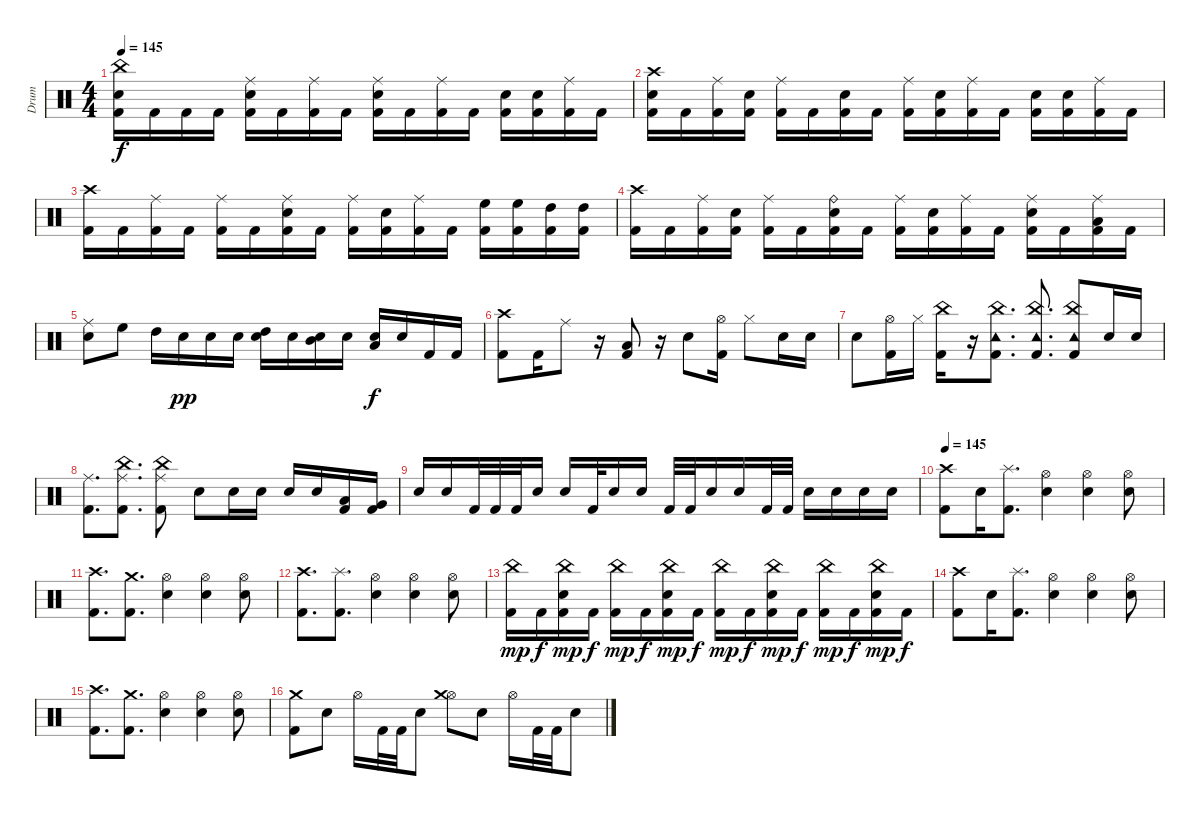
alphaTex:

\track ("Drum" "Drum") {instrument percussion}
\staff {score}
\articulation defaults
\ts (4 4)
\tempo 145
\clef neutral
\ks c
("Electric Snare (hit)" "Kick (hit) 2" "China (hit)").16{dy f} "Kick (hit) 2".16 "Kick (hit) 2".16 "Kick (hit) 2".16 ("Electric Snare (hit)" "Kick (hit) 2" "Ride (middle)").16 "Kick (hit) 2".16 ("Kick (hit) 2" "Ride (middle)").16 "Kick (hit) 2".16 ("Electric Snare (hit)" "Kick (hit) 2" "Ride (middle)").16 "Kick (hit) 2".16 ("Kick (hit) 2" "Ride (middle)").16 "Kick (hit) 2".16 ("Kick (hit) 2" "Electric Snare (hit)").16 ("Kick (hit) 2" "Electric Snare (hit)").16 ("Kick (hit) 2" "Ride (middle)").16 "Kick (hit) 2".16 |
("Kick (hit) 2" "Electric Snare (hit)" "Crash high (hit)").16 "Kick (hit) 2".16 ("Kick (hit) 2" "Ride (middle)").16 ("Kick (hit) 2" "Electric Snare (hit)").16 ("Kick (hit) 2" "Ride (middle)").16 "Kick (hit) 2".16 ("Kick (hit) 2" "Electric Snare (hit)").16 "Kick (hit) 2".16 ("Kick (hit) 2" "Ride (middle)").16 ("Kick (hit) 2" "Electric Snare (hit)").16 ("Kick (hit) 2" "Ride (middle)").16 "Kick (hit) 2".16 ("Kick (hit) 2" "Electric Snare (hit)").16 ("Kick (hit) 2" "Electric Snare (hit)").16 ("Kick (hit) 2" "Ride (middle)").16 "Kick (hit) 2".16 |
("Crash high (hit)" "Kick (hit) 2").16 "Kick (hit) 2".16 ("Kick (hit) 2" "Ride (middle)").16 "Kick (hit) 2".16 ("Kick (hit) 2" "Ride (middle)").16 "Kick (hit) 2".16 ("Kick (hit) 2" "Electric Snare (hit)" "Ride (middle)").16 "Kick (hit) 2".16 ("Kick (hit) 2" "Ride (middle)").16 ("Kick (hit) 2" "Electric Snare (hit)").16 ("Kick (hit) 2" "Ride (middle)").16 "Kick (hit) 2".16 ("Kick (hit) 2" "High Floor Tom (hit)").16 ("Kick (hit) 2" "High Floor Tom (hit)").16 ("Kick (hit) 2" "High Tom (hit)").16 ("Kick (hit) 2" "High Tom (hit)").16 |
("Kick (hit) 2" "Crash high (hit)").16 "Kick (hit) 2".16 ("Kick (hit) 2" "Ride (middle)").16 ("Kick (hit) 2" "Electric Snare (hit)").16 ("Kick (hit) 2" "Ride (middle)").16 "Kick (hit) 2".16 ("Kick (hit) 2" "Ride (bell)" "Electric Snare (hit)").16 "Kick (hit) 2".16 ("Kick (hit) 2" "Ride (middle)").16 ("Kick (hit) 2" "Electric Snare (hit)").16 ("Kick (hit) 2" "Ride (middle)").16 "Kick (hit) 2".16 ("Kick (hit) 2" "Electric Snare (hit)" "Ride (middle)").16 "Kick (hit) 2".16 ("Kick (hit) 2" "Low Floor Tom (hit)" "Ride (middle)").16 "Kick (hit) 2".16 |
("Electric Snare (hit)" "Ride (middle)").8 "High Floor Tom (hit)".8 "High Tom (hit)".16 "Electric Snare (hit)".16{dy pp} "Electric Snare (hit)".16 "Electric Snare (hit)".16 ("High Tom (hit)" "Electric Snare (hit)").16 "Electric Snare (hit)".16 ("Mid Tom (hit)" "Electric Snare (hit)").16 "Electric Snare (hit)".16 ("Electric Snare (hit)" "Low Tom (hit)").16{dy f} "Electric Snare (hit)".16 "Kick (hit) 2".16 "Kick (hit) 2".16 |
("Crash high (hit)" "Kick (hit) 2").8 "Kick (hit) 2".16 "Ride (middle)".8 r.16 ("Low Tom (hit)" "Kick (hit) 2").8 r.16 "Electric Snare (hit)".8 ("Hi-Hat (open)" "Kick (hit) 2").16 "Hi-Hat (closed)".8 "Electric Snare (hit)".16 "Electric Snare (hit)".16 |
"Electric Snare (hit)".8 ("Kick (hit) 2" "Hi-Hat (open)").16 "Hi-Hat (closed)".16 ("Kick (hit) 2" "China (hit)").16 r.16 ("Tambourine (hit)" "Kick (hit) 2" "China (hit)").8{d} ("Tambourine (hit)" "China (hit)" "Kick (hit) 2").8{d} ("Tambourine (hit)" "China (hit)" "Kick (hit) 2").8 "Electric Snare (hit)".16 "Electric Snare (hit)".16 |
("Kick (hit) 2" "Ride (middle)").8{d} ("Ride (middle)" "Kick (hit) 2" "China (hit)").8{d} ("China (hit)" "Ride (middle)" "Kick (hit) 2").8 "Electric Snare (hit)".8 "Electric Snare (hit)".16 "Electric Snare (hit)".16 "Electric Snare (hit)".16 "Electric Snare (hit)".16 ("Kick (hit) 2" "Low Tom (hit)").16 ("Kick (hit) 2" "Very Low Tom (hit)").16 |
"Electric Snare (hit)".16 "Electric Snare (hit)".16 "Kick (hit) 2".32 "Kick (hit) 2".32 "Kick (hit) 2".32 "Electric Snare (hit)".16 "Electric Snare (hit)".16 "Kick (hit) 2".32 "Electric Snare (hit)".16 "Electric Snare (hit)".16 "Kick (hit) 2".32 "Kick (hit) 2".32 "Electric Snare (hit)".16 "Electric Snare (hit)".16 "Kick (hit) 2".32 "Kick (hit) 2".32 "Electric Snare (hit)".16 "Electric Snare (hit)".16 "Electric Snare (hit)".16 "Electric Snare (hit)".16 |
\tempo 145
("Crash high (hit)" "Kick (hit) 2").8 "Electric Snare (hit)".16 ("Splash (hit)" "Kick (hit) 2").8{d} ("Hi-Hat (open)" "Electric Snare (hit)").4 ("Hi-Hat (open)" "Electric Snare (hit)").4 ("Hi-Hat (open)" "Electric Snare (hit)").8 |
("Kick (hit) 2" "Crash high (hit)").8{d} ("Kick (hit) 2" "Crash medium (hit)").8{d} ("Hi-Hat (open)" "Electric Snare (hit)").4 ("Hi-Hat (open)" "Electric Snare (hit)").4 ("Hi-Hat (open)" "Electric Snare (hit)").8 |
("Crash high (hit)" "Kick (hit) 2").8{d} ("Splash (hit)" "Kick (hit) 2").8{d} ("Hi-Hat (open)" "Electric Snare (hit)").4 ("Hi-Hat (open)" "Electric Snare (hit)").4 ("Hi-Hat (open)" "Electric Snare (hit)").8 |
("Kick (hit) 2" "China (hit)").16{dy mp} "Kick (hit) 2".16{dy f} ("Electric Snare (hit)" "Kick (hit) 2" "China (hit)").16{dy mp} "Kick (hit) 2".16{dy f} ("Kick (hit) 2" "China (hit)").16{dy mp} "Kick (hit) 2".16{dy f} ("Electric Snare (hit)" "Kick (hit) 2" "China (hit)").16{dy mp} "Kick (hit) 2".16{dy f} ("Kick (hit) 2" "China (hit)").16{dy mp} "Kick (hit) 2".16{dy f} ("Electric Snare (hit)" "Kick (hit) 2" "China (hit)").16{dy mp} "Kick (hit) 2".16{dy f} ("Kick (hit) 2" "China (hit)").16{dy mp} "Kick (hit) 2".16{dy f} ("Electric Snare (hit)" "Kick (hit) 2" "China (hit)").16{dy mp} "Kick (hit) 2".16{dy f} |
("Kick (hit) 2" "Crash high (hit)").8 "Electric Snare (hit)".16 ("Splash (hit)" "Kick (hit) 2").8{d} ("Hi-Hat (open)" "Electric Snare (hit)").4 ("Hi-Hat (open)" "Electric Snare (hit)").4 ("Hi-Hat (open)" "Electric Snare (hit)").8 |
("Kick (hit) 2" "Crash high (hit)").8{d} ("Kick (hit) 2" "Crash medium (hit)").8{d} ("Hi-Hat (open)" "Electric Snare (hit)").4 ("Hi-Hat (open)" "Electric Snare (hit)").4 ("Hi-Hat (open)" "Electric Snare (hit)").8 |
("Kick (hit) 2" "Crash medium (hit)").8 "Electric Snare (hit)".8 "Hi-Hat (open)".16 "Kick (hit) 2".32 "Kick (hit) 2".32 "Electric Snare (hit)".8 ("Hi-Hat (open)" "Crash medium (hit)").8 "Electric Snare (hit)".8 "Hi-Hat (open)".16 "Kick (hit) 2".32 "Kick (hit) 2".32 "Electric Snare (hit)".8
